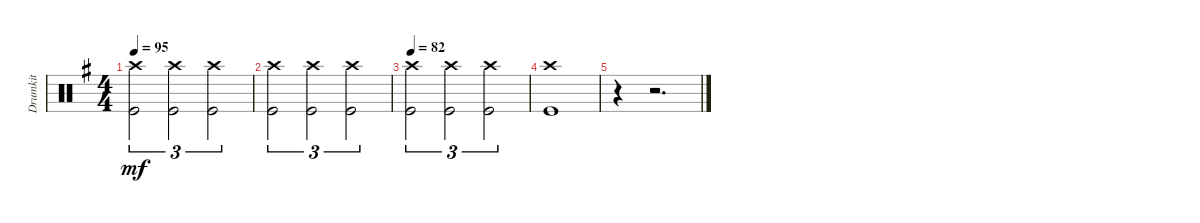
\track ("Drumkit" "Drumkit") {instrument percussion}
\staff {score}
\articulation defaults
\ts (4 4)
\tempo 95
\clef neutral
\ks g
("Kick (hit)" "Crash high (hit)").2{tu (3 2) dy mf} ("Kick (hit)" "Crash high (hit)").2{tu (3 2)} ("Kick (hit)" "Crash high (hit)").2{tu (3 2)} |
("Kick (hit)" "Crash high (hit)").2{tu (3 2)} ("Kick (hit)" "Crash high (hit)").2{tu (3 2)} ("Kick (hit)" "Crash high (hit)").2{tu (3 2)} |
\tempo 82
("Kick (hit)" "Crash high (hit)").2{tu (3 2)} ("Kick (hit)" "Crash high (hit)").2{tu (3 2)} ("Kick (hit)" "Crash high (hit)").2{tu (3 2)} |
("Kick (hit)" "Crash high (hit)").1 |
r.4 r.2{d}
